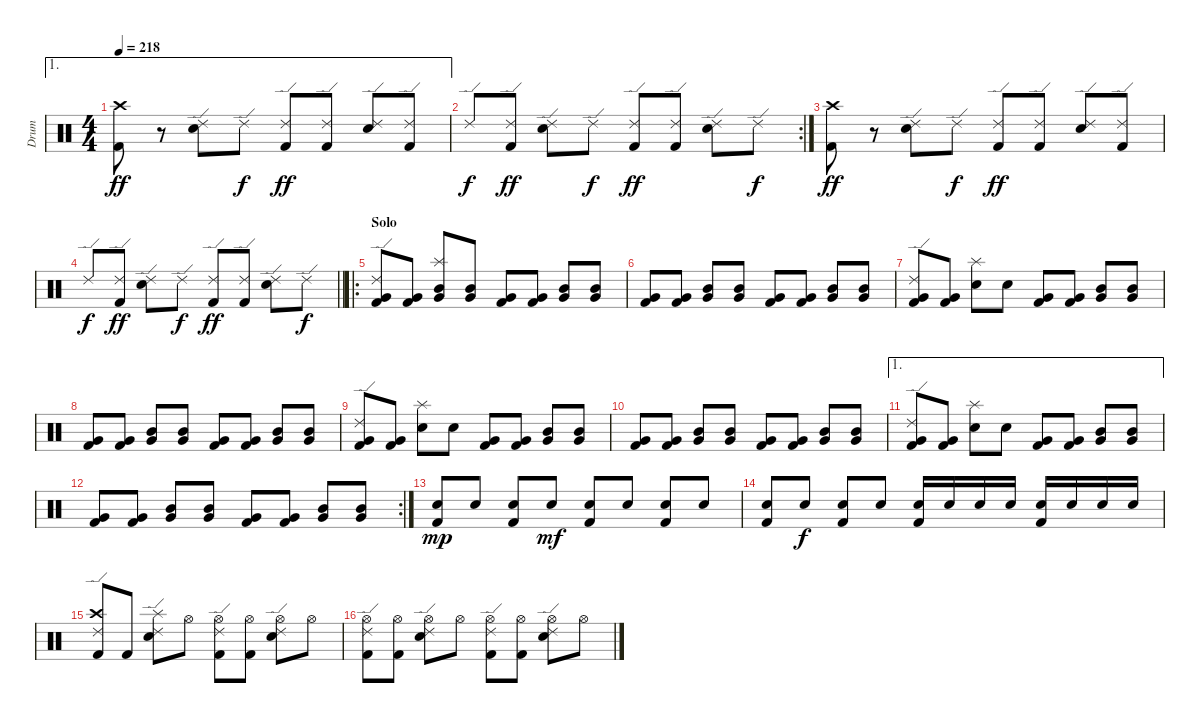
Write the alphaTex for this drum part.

\track ("Drum" "Drum") {instrument percussion}
\staff {score}
\articulation defaults
\ae 1
\ts (4 4)
\tempo 218
\clef neutral
\ks c
("Kick (hit) 2" "Crash high (hit)").8{dy ff} r.8 ("Snare (hit) 2" "Ride (edge) 2").8 "Ride (edge) 2".8{dy f} ("Kick (hit) 2" "Ride (edge) 2").8{dy ff} ("Kick (hit) 2" "Ride (edge) 2").8 ("Snare (hit) 2" "Ride (edge) 2").8 ("Kick (hit) 2" "Ride (edge) 2").8 |
\rc 2 "Ride (edge) 2".8{dy f}
("Kick (hit) 2" "Ride (edge) 2").8{dy ff} ("Snare (hit) 2" "Ride (edge) 2").8 "Ride (edge) 2".8{dy f} ("Kick (hit) 2" "Ride (edge) 2").8{dy ff} ("Kick (hit) 2" "Ride (edge) 2").8 ("Snare (hit) 2" "Ride (edge) 2").8 "Ride (edge) 2".8{dy f} |
("Kick (hit) 2" "Crash high (hit)").8{dy ff} r.8 ("Snare (hit) 2" "Ride (edge) 2").8 "Ride (edge) 2".8{dy f} ("Kick (hit) 2" "Ride (edge) 2").8{dy ff} ("Kick (hit) 2" "Ride (edge) 2").8 ("Snare (hit) 2" "Ride (edge) 2").8 ("Kick (hit) 2" "Ride (edge) 2").8 |
\barLineRight lightlight "Ride (edge) 2".8{dy f}
("Kick (hit) 2" "Ride (edge) 2").8{dy ff} ("Snare (hit) 2" "Ride (edge) 2").8 "Ride (edge) 2".8{dy f} ("Kick (hit) 2" "Ride (edge) 2").8{dy ff} ("Kick (hit) 2" "Ride (edge) 2").8 ("Snare (hit) 2" "Ride (edge) 2").8 "Ride (edge) 2".8{dy f} |
\ro
\section ("" "Solo")
("Ride (edge) 2" "Very Low Tom (hit)" "Kick (hit) 2").8 ("Very Low Tom (hit)" "Kick (hit) 2").8 ("Splash (hit)" "Mid Tom (hit)" "Very Low Tom (hit)").8 ("Mid Tom (hit)" "Very Low Tom (hit)").8 ("Very Low Tom (hit)" "Kick (hit) 2").8 ("Very Low Tom (hit)" "Kick (hit) 2").8 ("Mid Tom (hit)" "Very Low Tom (hit)").8 ("Mid Tom (hit)" "Very Low Tom (hit)").8 |
("Very Low Tom (hit)" "Kick (hit) 2").8 ("Very Low Tom (hit)" "Kick (hit) 2").8 ("Mid Tom (hit)" "Very Low Tom (hit)").8 ("Mid Tom (hit)" "Very Low Tom (hit)").8 ("Very Low Tom (hit)" "Kick (hit) 2").8 ("Very Low Tom (hit)" "Kick (hit) 2").8 ("Mid Tom (hit)" "Very Low Tom (hit)").8 ("Mid Tom (hit)" "Very Low Tom (hit)").8 |
("Ride (edge) 2" "Very Low Tom (hit)" "Kick (hit) 2").8 ("Very Low Tom (hit)" "Kick (hit) 2").8 ("Splash (hit)" "Snare (hit) 2").8 "Snare (hit) 2".8 ("Very Low Tom (hit)" "Kick (hit) 2").8 ("Very Low Tom (hit)" "Kick (hit) 2").8 ("Mid Tom (hit)" "Very Low Tom (hit)").8 ("Mid Tom (hit)" "Very Low Tom (hit)").8 |
("Very Low Tom (hit)" "Kick (hit) 2").8 ("Very Low Tom (hit)" "Kick (hit) 2").8 ("Mid Tom (hit)" "Very Low Tom (hit)").8 ("Mid Tom (hit)" "Very Low Tom (hit)").8 ("Very Low Tom (hit)" "Kick (hit) 2").8 ("Very Low Tom (hit)" "Kick (hit) 2").8 ("Mid Tom (hit)" "Very Low Tom (hit)").8 ("Mid Tom (hit)" "Very Low Tom (hit)").8 |
("Ride (edge) 2" "Very Low Tom (hit)" "Kick (hit) 2").8 ("Very Low Tom (hit)" "Kick (hit) 2").8 ("Splash (hit)" "Snare (hit) 2").8 "Snare (hit) 2".8 ("Very Low Tom (hit)" "Kick (hit) 2").8 ("Very Low Tom (hit)" "Kick (hit) 2").8 ("Mid Tom (hit)" "Very Low Tom (hit)").8 ("Mid Tom (hit)" "Very Low Tom (hit)").8 |
("Very Low Tom (hit)" "Kick (hit) 2").8 ("Very Low Tom (hit)" "Kick (hit) 2").8 ("Mid Tom (hit)" "Very Low Tom (hit)").8 ("Mid Tom (hit)" "Very Low Tom (hit)").8 ("Very Low Tom (hit)" "Kick (hit) 2").8 ("Very Low Tom (hit)" "Kick (hit) 2").8 ("Mid Tom (hit)" "Very Low Tom (hit)").8 ("Mid Tom (hit)" "Very Low Tom (hit)").8 |
\ae 1
("Ride (edge) 2" "Very Low Tom (hit)" "Kick (hit) 2").8 ("Very Low Tom (hit)" "Kick (hit) 2").8 ("Splash (hit)" "Snare (hit) 2").8 "Snare (hit) 2".8 ("Very Low Tom (hit)" "Kick (hit) 2").8 ("Very Low Tom (hit)" "Kick (hit) 2").8 ("Mid Tom (hit)" "Very Low Tom (hit)").8 ("Mid Tom (hit)" "Very Low Tom (hit)").8 |
\rc 2
("Very Low Tom (hit)" "Kick (hit) 2").8 ("Very Low Tom (hit)" "Kick (hit) 2").8 ("Mid Tom (hit)" "Very Low Tom (hit)").8 ("Mid Tom (hit)" "Very Low Tom (hit)").8 ("Very Low Tom (hit)" "Kick (hit) 2").8 ("Very Low Tom (hit)" "Kick (hit) 2").8 ("Mid Tom (hit)" "Very Low Tom (hit)").8 ("Mid Tom (hit)" "Very Low Tom (hit)").8 |
("Snare (hit) 2" "Kick (hit) 2").8{dy mp} "Snare (hit) 2".8 ("Snare (hit) 2" "Kick (hit) 2").8 "Snare (hit) 2".8{dy mf} ("Snare (hit) 2" "Kick (hit) 2").8 "Snare (hit) 2".8 ("Snare (hit) 2" "Kick (hit) 2").8 "Snare (hit) 2".8 |
("Snare (hit) 2" "Kick (hit) 2").8 "Snare (hit) 2".8{dy f} ("Snare (hit) 2" "Kick (hit) 2").8 "Snare (hit) 2".8 ("Snare (hit) 2" "Kick (hit) 2").16 "Snare (hit) 2".16 "Snare (hit) 2".16 "Snare (hit) 2".16 ("Snare (hit) 2" "Kick (hit) 2").16 "Snare (hit) 2".16 "Snare (hit) 2".16 "Snare (hit) 2".16 |
("Ride (edge) 2" "Kick (hit) 2" "Crash high (hit)").8 "Kick (hit) 2".8 ("Ride (edge) 2" "Snare (hit) 2" "Splash (hit)").8 "Hi-Hat (open)".8 ("Ride (edge) 2" "Kick (hit) 2" "Hi-Hat (open)").8 ("Kick (hit) 2" "Hi-Hat (open)").8 ("Ride (edge) 2" "Snare (hit) 2" "Hi-Hat (open)").8 "Hi-Hat (open)".8 |
("Ride (edge) 2" "Kick (hit) 2" "Hi-Hat (open)").8 ("Kick (hit) 2" "Hi-Hat (open)").8 ("Ride (edge) 2" "Snare (hit) 2" "Hi-Hat (open)").8 "Hi-Hat (open)".8 ("Ride (edge) 2" "Kick (hit) 2" "Hi-Hat (open)").8 ("Kick (hit) 2" "Hi-Hat (open)").8 ("Ride (edge) 2" "Snare (hit) 2" "Hi-Hat (open)").8 "Hi-Hat (open)".8
